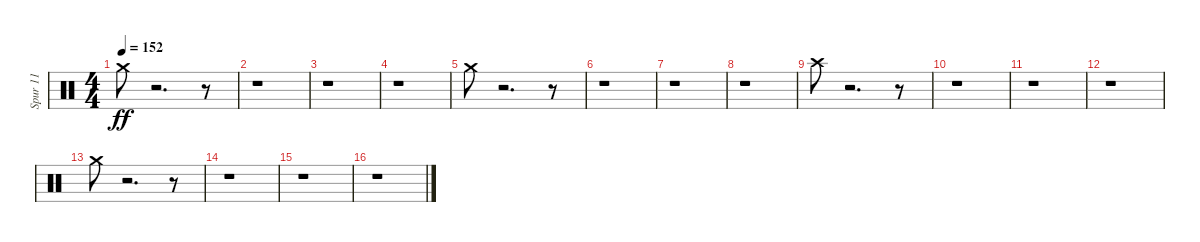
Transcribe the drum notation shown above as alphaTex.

\track ("Spur 11" "Spur 11") {instrument percussion}
\staff {score}
\articulation defaults
\ts (4 4)
\tempo 152
\clef neutral
\ks c "Crash medium (hit)".8{dy ff}
r.2{d} r.8 |
r.1 |
r.1 |
r.1 |
"Crash medium (hit)".8 r.2{d} r.8 |
r.1 |
r.1 |
r.1 |
"Crash high (hit)".8 r.2{d} r.8 |
r.1 |
r.1 |
r.1 |
"Crash medium (hit)".8 r.2{d} r.8 |
r.1 |
r.1 |
r.1
